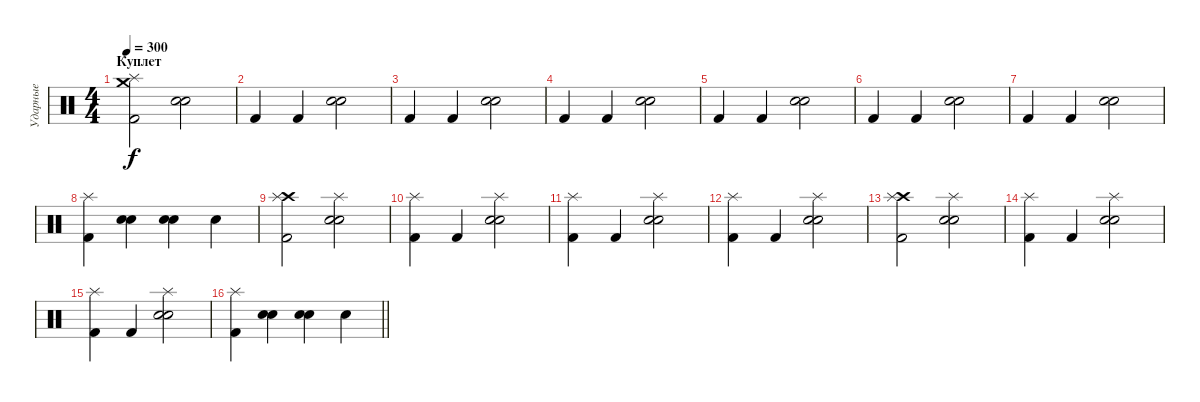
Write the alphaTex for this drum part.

\track ("Ударные" "Ударные") {instrument percussion}
\staff {score}
\articulation defaults
\ts (4 4)
\section ("" "Куплет")
\tempo 300
\clef neutral
\ks c
("Crash medium (hit)" "Splash (hit)" "Kick (hit) 2").2{dy f} ("Electric Snare (hit)" "Snare (hit) 2").2 |
"Kick (hit) 2".4 "Kick (hit) 2".4 ("Electric Snare (hit)" "Snare (hit) 2").2 |
"Kick (hit) 2".4 "Kick (hit) 2".4 ("Electric Snare (hit)" "Snare (hit) 2").2 |
"Kick (hit) 2".4 "Kick (hit) 2".4 ("Electric Snare (hit)" "Snare (hit) 2").2 |
"Kick (hit) 2".4 "Kick (hit) 2".4 ("Electric Snare (hit)" "Snare (hit) 2").2 |
"Kick (hit) 2".4 "Kick (hit) 2".4 ("Electric Snare (hit)" "Snare (hit) 2").2 |
"Kick (hit) 2".4 "Kick (hit) 2".4 ("Electric Snare (hit)" "Snare (hit) 2").2 |
("Splash (hit)" "Kick (hit) 2").4 ("Electric Snare (hit)" "Snare (hit) 2").4 ("Electric Snare (hit)" "Snare (hit) 2").4 "Electric Snare (hit)".4 |
("Crash high (hit)" "Splash (hit)" "Kick (hit) 2").2 ("Splash (hit)" "Electric Snare (hit)" "Snare (hit) 2").2 |
("Splash (hit)" "Kick (hit) 2").4 "Kick (hit) 2".4 ("Splash (hit)" "Electric Snare (hit)" "Snare (hit) 2").2 |
("Splash (hit)" "Kick (hit) 2").4 "Kick (hit) 2".4 ("Splash (hit)" "Electric Snare (hit)" "Snare (hit) 2").2 |
("Splash (hit)" "Kick (hit) 2").4 "Kick (hit) 2".4 ("Splash (hit)" "Electric Snare (hit)" "Snare (hit) 2").2 |
("Crash high (hit)" "Splash (hit)" "Kick (hit) 2").2 ("Splash (hit)" "Electric Snare (hit)" "Snare (hit) 2").2 |
("Splash (hit)" "Kick (hit) 2").4 "Kick (hit) 2".4 ("Splash (hit)" "Electric Snare (hit)" "Snare (hit) 2").2 |
("Splash (hit)" "Kick (hit) 2").4 "Kick (hit) 2".4 ("Splash (hit)" "Electric Snare (hit)" "Snare (hit) 2").2 |
\barLineRight lightlight
("Splash (hit)" "Kick (hit) 2").4 ("Electric Snare (hit)" "Snare (hit) 2").4 ("Electric Snare (hit)" "Snare (hit) 2").4 "Electric Snare (hit)".4
